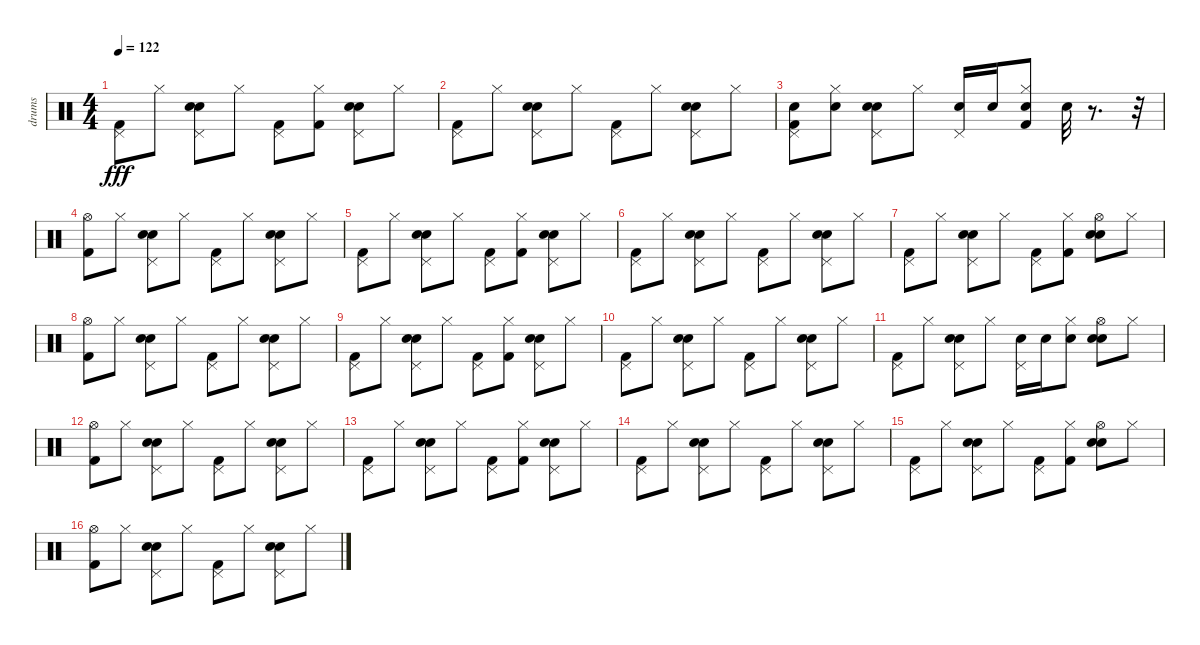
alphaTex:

\track ("drums" "drums") {instrument percussion}
\staff {score}
\articulation defaults
\ts (4 4)
\tempo 122
\clef neutral
\ks c
("Pedal Hi-Hat (hit)" "Kick (hit) 2").8{dy fff} "Hi-Hat (closed)".8 ("Hand Clap (hit)" "Pedal Hi-Hat (hit)" "Snare (hit) 2").8 "Hi-Hat (closed)".8 ("Pedal Hi-Hat (hit)" "Kick (hit) 2").8 ("Hi-Hat (closed)" "Kick (hit) 2").8 ("Hand Clap (hit)" "Pedal Hi-Hat (hit)" "Snare (hit) 2").8 "Hi-Hat (closed)".8 |
("Pedal Hi-Hat (hit)" "Kick (hit) 2").8 "Hi-Hat (closed)".8 ("Hand Clap (hit)" "Pedal Hi-Hat (hit)" "Snare (hit) 2").8 "Hi-Hat (closed)".8 ("Pedal Hi-Hat (hit)" "Kick (hit) 2").8 "Hi-Hat (closed)".8 ("Hand Clap (hit)" "Pedal Hi-Hat (hit)" "Snare (hit) 2").8 "Hi-Hat (closed)".8 |
("Snare (hit) 2" "Kick (hit) 2" "Pedal Hi-Hat (hit)").8 ("Snare (hit) 2" "Hi-Hat (closed)").8 ("Hand Clap (hit)" "Pedal Hi-Hat (hit)" "Snare (hit) 2").8 "Hi-Hat (closed)".8 ("Snare (hit) 2" "Pedal Hi-Hat (hit)").16 "Snare (hit) 2".16 ("Kick (hit) 2" "Snare (hit) 2" "Hi-Hat (closed)").8 "Hand Clap (hit)".32 r.8{d} r.32 |
("Hi-Hat (open)" "Kick (hit) 2").8 "Hi-Hat (closed)".8 ("Hand Clap (hit)" "Pedal Hi-Hat (hit)" "Snare (hit) 2").8 "Hi-Hat (closed)".8 ("Pedal Hi-Hat (hit)" "Kick (hit) 2").8 "Hi-Hat (closed)".8 ("Hand Clap (hit)" "Pedal Hi-Hat (hit)" "Snare (hit) 2").8 "Hi-Hat (closed)".8 |
("Pedal Hi-Hat (hit)" "Kick (hit) 2").8 "Hi-Hat (closed)".8 ("Hand Clap (hit)" "Pedal Hi-Hat (hit)" "Snare (hit) 2").8 "Hi-Hat (closed)".8 ("Pedal Hi-Hat (hit)" "Kick (hit) 2").8 ("Hi-Hat (closed)" "Kick (hit) 2").8 ("Hand Clap (hit)" "Pedal Hi-Hat (hit)" "Snare (hit) 2").8 "Hi-Hat (closed)".8 |
("Pedal Hi-Hat (hit)" "Kick (hit) 2").8 "Hi-Hat (closed)".8 ("Hand Clap (hit)" "Pedal Hi-Hat (hit)" "Snare (hit) 2").8 "Hi-Hat (closed)".8 ("Pedal Hi-Hat (hit)" "Kick (hit) 2").8 "Hi-Hat (closed)".8 ("Hand Clap (hit)" "Pedal Hi-Hat (hit)" "Snare (hit) 2").8 "Hi-Hat (closed)".8 |
("Pedal Hi-Hat (hit)" "Kick (hit) 2").8 "Hi-Hat (closed)".8 ("Hand Clap (hit)" "Pedal Hi-Hat (hit)" "Snare (hit) 2").8 "Hi-Hat (closed)".8 ("Kick (hit) 2" "Pedal Hi-Hat (hit)").8 ("Kick (hit) 2" "Hi-Hat (closed)").8 ("Hand Clap (hit)" "Hi-Hat (open)" "Snare (hit) 2").8 "Hi-Hat (closed)".8 |
("Hi-Hat (open)" "Kick (hit) 2").8 "Hi-Hat (closed)".8 ("Hand Clap (hit)" "Pedal Hi-Hat (hit)" "Snare (hit) 2").8 "Hi-Hat (closed)".8 ("Pedal Hi-Hat (hit)" "Kick (hit) 2").8 "Hi-Hat (closed)".8 ("Hand Clap (hit)" "Pedal Hi-Hat (hit)" "Snare (hit) 2").8 "Hi-Hat (closed)".8 |
("Pedal Hi-Hat (hit)" "Kick (hit) 2").8 "Hi-Hat (closed)".8 ("Hand Clap (hit)" "Pedal Hi-Hat (hit)" "Snare (hit) 2").8 "Hi-Hat (closed)".8 ("Pedal Hi-Hat (hit)" "Kick (hit) 2").8 ("Hi-Hat (closed)" "Kick (hit) 2").8 ("Hand Clap (hit)" "Pedal Hi-Hat (hit)" "Snare (hit) 2").8 "Hi-Hat (closed)".8 |
("Pedal Hi-Hat (hit)" "Kick (hit) 2").8 "Hi-Hat (closed)".8 ("Hand Clap (hit)" "Pedal Hi-Hat (hit)" "Snare (hit) 2").8 "Hi-Hat (closed)".8 ("Pedal Hi-Hat (hit)" "Kick (hit) 2").8 "Hi-Hat (closed)".8 ("Hand Clap (hit)" "Pedal Hi-Hat (hit)" "Snare (hit) 2").8 "Hi-Hat (closed)".8 |
("Kick (hit) 2" "Pedal Hi-Hat (hit)").8 "Hi-Hat (closed)".8 ("Hand Clap (hit)" "Pedal Hi-Hat (hit)" "Snare (hit) 2").8 "Hi-Hat (closed)".8 ("Snare (hit) 2" "Pedal Hi-Hat (hit)").16 "Snare (hit) 2".16 ("Snare (hit) 2" "Hi-Hat (closed)").8 ("Hand Clap (hit)" "Hi-Hat (open)" "Snare (hit) 2").8 "Hi-Hat (closed)".8 |
("Hi-Hat (open)" "Kick (hit) 2").8 "Hi-Hat (closed)".8 ("Hand Clap (hit)" "Pedal Hi-Hat (hit)" "Snare (hit) 2").8 "Hi-Hat (closed)".8 ("Pedal Hi-Hat (hit)" "Kick (hit) 2").8 "Hi-Hat (closed)".8 ("Hand Clap (hit)" "Pedal Hi-Hat (hit)" "Snare (hit) 2").8 "Hi-Hat (closed)".8 |
("Pedal Hi-Hat (hit)" "Kick (hit) 2").8 "Hi-Hat (closed)".8 ("Hand Clap (hit)" "Pedal Hi-Hat (hit)" "Snare (hit) 2").8 "Hi-Hat (closed)".8 ("Pedal Hi-Hat (hit)" "Kick (hit) 2").8 ("Hi-Hat (closed)" "Kick (hit) 2").8 ("Hand Clap (hit)" "Pedal Hi-Hat (hit)" "Snare (hit) 2").8 "Hi-Hat (closed)".8 |
("Pedal Hi-Hat (hit)" "Kick (hit) 2").8 "Hi-Hat (closed)".8 ("Hand Clap (hit)" "Pedal Hi-Hat (hit)" "Snare (hit) 2").8 "Hi-Hat (closed)".8 ("Pedal Hi-Hat (hit)" "Kick (hit) 2").8 "Hi-Hat (closed)".8 ("Hand Clap (hit)" "Pedal Hi-Hat (hit)" "Snare (hit) 2").8 "Hi-Hat (closed)".8 |
("Pedal Hi-Hat (hit)" "Kick (hit) 2").8 "Hi-Hat (closed)".8 ("Hand Clap (hit)" "Pedal Hi-Hat (hit)" "Snare (hit) 2").8 "Hi-Hat (closed)".8 ("Kick (hit) 2" "Pedal Hi-Hat (hit)").8 ("Kick (hit) 2" "Hi-Hat (closed)").8 ("Hand Clap (hit)" "Hi-Hat (open)" "Snare (hit) 2").8 "Hi-Hat (closed)".8 |
("Hi-Hat (open)" "Kick (hit) 2").8 "Hi-Hat (closed)".8 ("Hand Clap (hit)" "Pedal Hi-Hat (hit)" "Snare (hit) 2").8 "Hi-Hat (closed)".8 ("Pedal Hi-Hat (hit)" "Kick (hit) 2").8 "Hi-Hat (closed)".8 ("Hand Clap (hit)" "Pedal Hi-Hat (hit)" "Snare (hit) 2").8 "Hi-Hat (closed)".8
